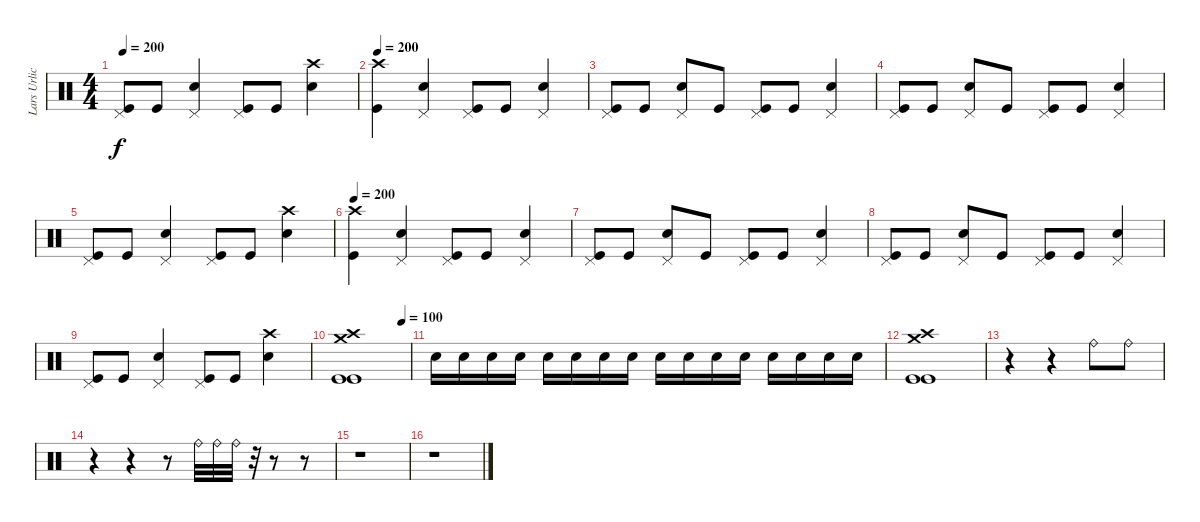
\track ("Lars Urlich" "Lars Urlic") {instrument percussion}
\staff {score}
\articulation defaults
\ts (4 4)
\tempo 200
\clef neutral
\ks c
("Pedal Hi-Hat (hit)" "Kick (hit)").8{dy f} "Kick (hit)".8 ("Pedal Hi-Hat (hit)" "Snare (hit) 2").4 ("Pedal Hi-Hat (hit)" "Kick (hit)").8 "Kick (hit)".8 ("Crash high (hit)" "Snare (hit) 2").4 |
\tempo 200
("Crash high (hit)" "Kick (hit)").4 ("Pedal Hi-Hat (hit)" "Snare (hit) 2").4 ("Pedal Hi-Hat (hit)" "Kick (hit)").8 "Kick (hit)".8 ("Pedal Hi-Hat (hit)" "Snare (hit) 2").4 |
("Pedal Hi-Hat (hit)" "Kick (hit)").8 "Kick (hit)".8 ("Pedal Hi-Hat (hit)" "Snare (hit) 2").8 "Kick (hit)".8 ("Pedal Hi-Hat (hit)" "Kick (hit)").8 "Kick (hit)".8 ("Pedal Hi-Hat (hit)" "Snare (hit) 2").4 |
("Pedal Hi-Hat (hit)" "Kick (hit)").8 "Kick (hit)".8 ("Pedal Hi-Hat (hit)" "Snare (hit) 2").8 "Kick (hit)".8 ("Pedal Hi-Hat (hit)" "Kick (hit)").8 "Kick (hit)".8 ("Pedal Hi-Hat (hit)" "Snare (hit) 2").4 |
("Pedal Hi-Hat (hit)" "Kick (hit)").8 "Kick (hit)".8 ("Pedal Hi-Hat (hit)" "Snare (hit) 2").4 ("Pedal Hi-Hat (hit)" "Kick (hit)").8 "Kick (hit)".8 ("Crash high (hit)" "Snare (hit) 2").4 |
\tempo 200
("Crash high (hit)" "Kick (hit)").4 ("Pedal Hi-Hat (hit)" "Snare (hit) 2").4 ("Pedal Hi-Hat (hit)" "Kick (hit)").8 "Kick (hit)".8 ("Pedal Hi-Hat (hit)" "Snare (hit) 2").4 |
("Pedal Hi-Hat (hit)" "Kick (hit)").8 "Kick (hit)".8 ("Pedal Hi-Hat (hit)" "Snare (hit) 2").8 "Kick (hit)".8 ("Pedal Hi-Hat (hit)" "Kick (hit)").8 "Kick (hit)".8 ("Pedal Hi-Hat (hit)" "Snare (hit) 2").4 |
("Pedal Hi-Hat (hit)" "Kick (hit)").8 "Kick (hit)".8 ("Pedal Hi-Hat (hit)" "Snare (hit) 2").8 "Kick (hit)".8 ("Pedal Hi-Hat (hit)" "Kick (hit)").8 "Kick (hit)".8 ("Pedal Hi-Hat (hit)" "Snare (hit) 2").4 |
("Pedal Hi-Hat (hit)" "Kick (hit)").8 "Kick (hit)".8 ("Pedal Hi-Hat (hit)" "Snare (hit) 2").4 ("Pedal Hi-Hat (hit)" "Kick (hit)").8 "Kick (hit)".8 ("Crash high (hit)" "Snare (hit) 2").4 |
\tempo (100 0.875)
("Crash medium (hit)" "Crash high (hit)" "Kick (hit)" "Kick (hit)").1 |
"Snare (hit) 2".16{volume 1} "Snare (hit) 2".16{volume 2} "Snare (hit) 2".16{volume 3} "Snare (hit) 2".16{volume 4} "Snare (hit) 2".16{volume 5} "Snare (hit) 2".16{volume 6} "Snare (hit) 2".16{volume 7} "Snare (hit) 2".16{volume 8} "Snare (hit) 2".16{volume 9} "Snare (hit) 2".16{volume 10} "Snare (hit) 2".16{volume 11} "Snare (hit) 2".16{volume 12} "Snare (hit) 2".16{volume 13} "Snare (hit) 2".16{volume 14} "Snare (hit) 2".16{volume 15} "Snare (hit) 2".16 |
("Crash high (hit)" "Crash medium (hit)" "Kick (hit)" "Kick (hit)").1 |
r.4 r.4 "Ride (bell)".8 "Ride (bell)".8 |
r.4 r.4 r.8 "Ride (bell)".32 "Ride (bell)".32 "Ride (bell)".32 r.32 r.8 r.8 |
r.1 |
r.1
